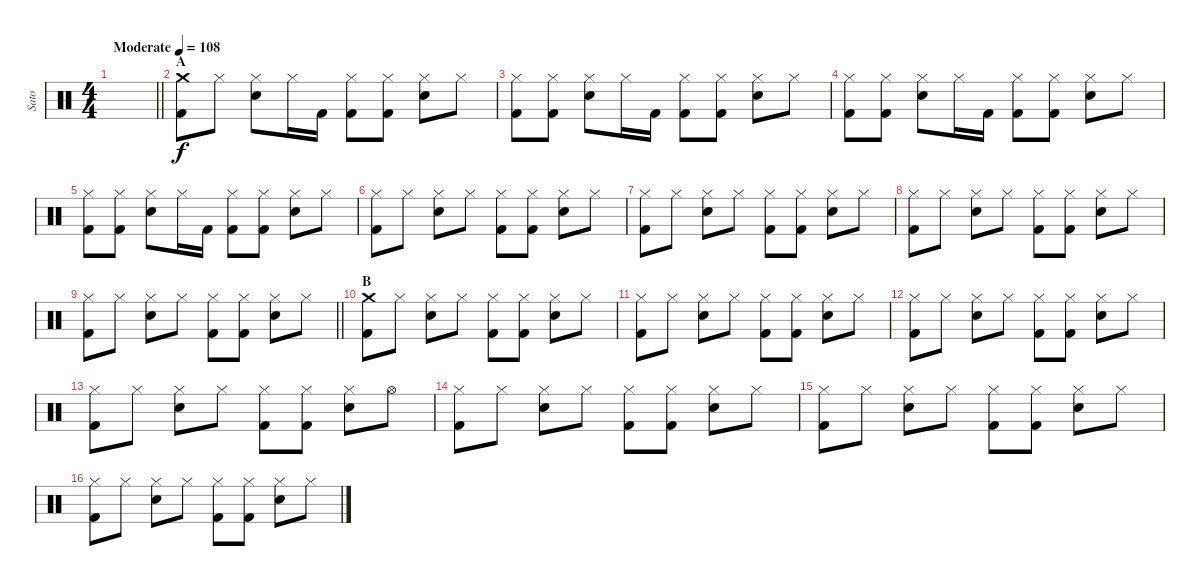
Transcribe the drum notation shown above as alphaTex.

\track ("Sato" "Sato") {instrument percussion}
\staff {score}
\articulation defaults
\ts (4 4)
\tempo (108 "Moderate")
\clef neutral
\barLineRight lightlight
\ks c
|
\section ("" "A")
("Crash medium (hit)" "Kick (hit) 2").8 "Hi-Hat (closed)".8 ("Hi-Hat (closed)" "Electric Snare (hit)").8 "Hi-Hat (closed)".16 "Kick (hit) 2".16 ("Hi-Hat (closed)" "Kick (hit) 2").8 ("Hi-Hat (closed)" "Kick (hit) 2").8 ("Hi-Hat (closed)" "Electric Snare (hit)").8 "Hi-Hat (closed)".8 |
("Hi-Hat (closed)" "Kick (hit) 2").8 ("Hi-Hat (closed)" "Kick (hit) 2").8 ("Hi-Hat (closed)" "Electric Snare (hit)").8 "Hi-Hat (closed)".16 "Kick (hit) 2".16 ("Hi-Hat (closed)" "Kick (hit) 2").8 ("Hi-Hat (closed)" "Kick (hit) 2").8 ("Hi-Hat (closed)" "Electric Snare (hit)").8 "Hi-Hat (closed)".8 |
("Hi-Hat (closed)" "Kick (hit) 2").8 ("Hi-Hat (closed)" "Kick (hit) 2").8 ("Hi-Hat (closed)" "Electric Snare (hit)").8 "Hi-Hat (closed)".16 "Kick (hit) 2".16 ("Hi-Hat (closed)" "Kick (hit) 2").8 ("Hi-Hat (closed)" "Kick (hit) 2").8 ("Hi-Hat (closed)" "Electric Snare (hit)").8 "Hi-Hat (closed)".8 |
("Hi-Hat (closed)" "Kick (hit) 2").8 ("Hi-Hat (closed)" "Kick (hit) 2").8 ("Hi-Hat (closed)" "Electric Snare (hit)").8 "Hi-Hat (closed)".16 "Kick (hit) 2".16 ("Hi-Hat (closed)" "Kick (hit) 2").8 ("Hi-Hat (closed)" "Kick (hit) 2").8 ("Hi-Hat (closed)" "Electric Snare (hit)").8 "Hi-Hat (closed)".8 |
("Hi-Hat (closed)" "Kick (hit) 2").8 "Hi-Hat (closed)".8 ("Hi-Hat (closed)" "Electric Snare (hit)").8 "Hi-Hat (closed)".8 ("Hi-Hat (closed)" "Kick (hit) 2").8 ("Hi-Hat (closed)" "Kick (hit) 2").8 ("Hi-Hat (closed)" "Electric Snare (hit)").8 "Hi-Hat (closed)".8 |
("Hi-Hat (closed)" "Kick (hit) 2").8 "Hi-Hat (closed)".8 ("Hi-Hat (closed)" "Electric Snare (hit)").8 "Hi-Hat (closed)".8 ("Hi-Hat (closed)" "Kick (hit) 2").8 ("Hi-Hat (closed)" "Kick (hit) 2").8 ("Hi-Hat (closed)" "Electric Snare (hit)").8 "Hi-Hat (closed)".8 |
("Hi-Hat (closed)" "Kick (hit) 2").8 "Hi-Hat (closed)".8 ("Hi-Hat (closed)" "Electric Snare (hit)").8 "Hi-Hat (closed)".8 ("Hi-Hat (closed)" "Kick (hit) 2").8 ("Hi-Hat (closed)" "Kick (hit) 2").8 ("Hi-Hat (closed)" "Electric Snare (hit)").8 "Hi-Hat (closed)".8 |
\barLineRight lightlight
("Hi-Hat (closed)" "Kick (hit) 2").8 "Hi-Hat (closed)".8 ("Hi-Hat (closed)" "Electric Snare (hit)").8 "Hi-Hat (closed)".8 ("Hi-Hat (closed)" "Kick (hit) 2").8 ("Hi-Hat (closed)" "Kick (hit) 2").8 ("Hi-Hat (closed)" "Electric Snare (hit)").8 "Hi-Hat (closed)".8 |
\section ("" "B")
("Crash medium (hit)" "Kick (hit) 2").8 "Hi-Hat (closed)".8 ("Hi-Hat (closed)" "Electric Snare (hit)").8 "Hi-Hat (closed)".8 ("Hi-Hat (closed)" "Kick (hit) 2").8 ("Hi-Hat (closed)" "Kick (hit) 2").8 ("Hi-Hat (closed)" "Electric Snare (hit)").8 "Hi-Hat (closed)".8 |
("Hi-Hat (closed)" "Kick (hit) 2").8 "Hi-Hat (closed)".8 ("Hi-Hat (closed)" "Electric Snare (hit)").8 "Hi-Hat (closed)".8 ("Hi-Hat (closed)" "Kick (hit) 2").8 ("Hi-Hat (closed)" "Kick (hit) 2").8 ("Hi-Hat (closed)" "Electric Snare (hit)").8 "Hi-Hat (closed)".8 |
("Hi-Hat (closed)" "Kick (hit) 2").8 "Hi-Hat (closed)".8 ("Hi-Hat (closed)" "Electric Snare (hit)").8 "Hi-Hat (closed)".8 ("Hi-Hat (closed)" "Kick (hit) 2").8 ("Hi-Hat (closed)" "Kick (hit) 2").8 ("Hi-Hat (closed)" "Electric Snare (hit)").8 "Hi-Hat (closed)".8 |
("Hi-Hat (closed)" "Kick (hit) 2").8 "Hi-Hat (closed)".8 ("Hi-Hat (closed)" "Electric Snare (hit)").8 "Hi-Hat (closed)".8 ("Hi-Hat (closed)" "Kick (hit) 2").8 ("Hi-Hat (closed)" "Kick (hit) 2").8 ("Hi-Hat (closed)" "Electric Snare (hit)").8 "Hi-Hat (open)".8 |
("Hi-Hat (closed)" "Kick (hit) 2").8 "Hi-Hat (closed)".8 ("Hi-Hat (closed)" "Electric Snare (hit)").8 "Hi-Hat (closed)".8 ("Hi-Hat (closed)" "Kick (hit) 2").8 ("Hi-Hat (closed)" "Kick (hit) 2").8 ("Hi-Hat (closed)" "Electric Snare (hit)").8 "Hi-Hat (closed)".8 |
("Hi-Hat (closed)" "Kick (hit) 2").8 "Hi-Hat (closed)".8 ("Hi-Hat (closed)" "Electric Snare (hit)").8 "Hi-Hat (closed)".8 ("Hi-Hat (closed)" "Kick (hit) 2").8 ("Hi-Hat (closed)" "Kick (hit) 2").8 ("Hi-Hat (closed)" "Electric Snare (hit)").8 "Hi-Hat (closed)".8 |
("Hi-Hat (closed)" "Kick (hit) 2").8 "Hi-Hat (closed)".8 ("Hi-Hat (closed)" "Electric Snare (hit)").8 "Hi-Hat (closed)".8 ("Hi-Hat (closed)" "Kick (hit) 2").8 ("Hi-Hat (closed)" "Kick (hit) 2").8 ("Hi-Hat (closed)" "Electric Snare (hit)").8 "Hi-Hat (closed)".8
